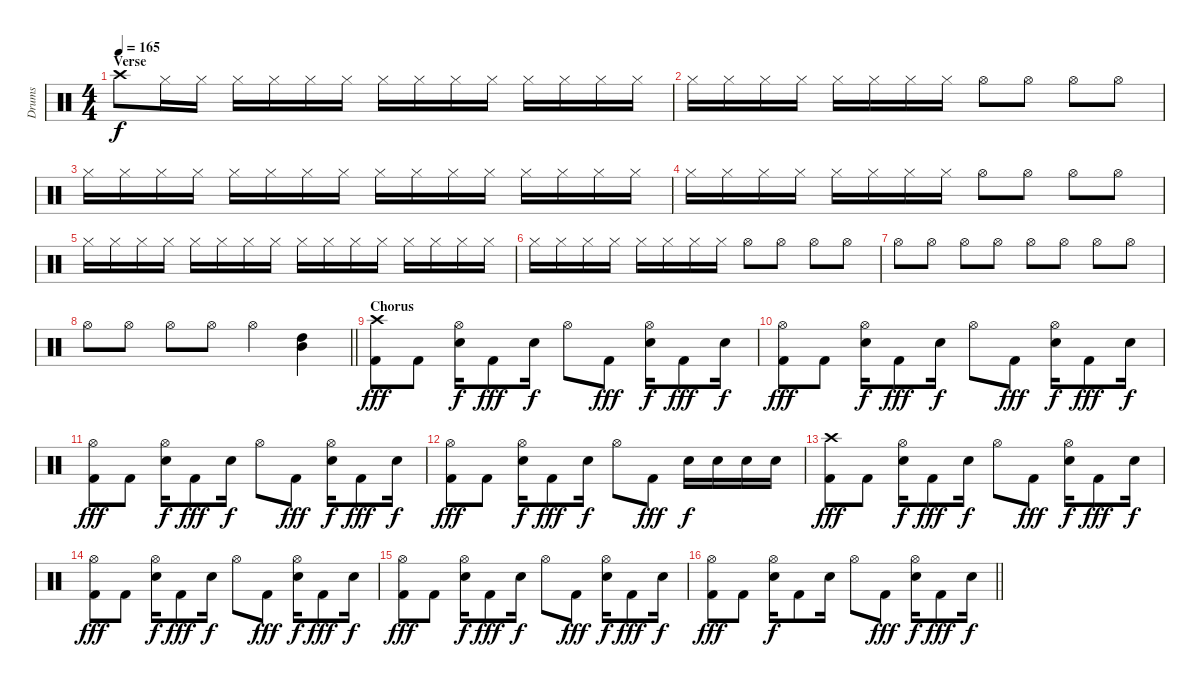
\track ("Drums" "Drums") {instrument percussion}
\staff {score}
\articulation defaults
\ts (4 4)
\section ("" "Verse")
\tempo 165
\clef neutral
\ks c "Crash high (hit)".8{dy f} "Hi-Hat (closed)".16 "Hi-Hat (closed)".16 "Hi-Hat (closed)".16 "Hi-Hat (closed)".16 "Hi-Hat (closed)".16 "Hi-Hat (closed)".16 "Hi-Hat (closed)".16 "Hi-Hat (closed)".16 "Hi-Hat (closed)".16 "Hi-Hat (closed)".16 "Hi-Hat (closed)".16 "Hi-Hat (closed)".16 "Hi-Hat (closed)".16 "Hi-Hat (closed)".16
|
"Hi-Hat (closed)".16 "Hi-Hat (closed)".16 "Hi-Hat (closed)".16 "Hi-Hat (closed)".16 "Hi-Hat (closed)".16 "Hi-Hat (closed)".16 "Hi-Hat (closed)".16 "Hi-Hat (closed)".16 "Hi-Hat (open)".8 "Hi-Hat (open)".8 "Hi-Hat (open)".8 "Hi-Hat (open)".8 |
"Hi-Hat (closed)".16 "Hi-Hat (closed)".16 "Hi-Hat (closed)".16 "Hi-Hat (closed)".16 "Hi-Hat (closed)".16 "Hi-Hat (closed)".16 "Hi-Hat (closed)".16 "Hi-Hat (closed)".16 "Hi-Hat (closed)".16 "Hi-Hat (closed)".16 "Hi-Hat (closed)".16 "Hi-Hat (closed)".16 "Hi-Hat (closed)".16 "Hi-Hat (closed)".16 "Hi-Hat (closed)".16 "Hi-Hat (closed)".16 |
"Hi-Hat (closed)".16 "Hi-Hat (closed)".16 "Hi-Hat (closed)".16 "Hi-Hat (closed)".16 "Hi-Hat (closed)".16 "Hi-Hat (closed)".16 "Hi-Hat (closed)".16 "Hi-Hat (closed)".16 "Hi-Hat (open)".8 "Hi-Hat (open)".8 "Hi-Hat (open)".8 "Hi-Hat (open)".8 |
"Hi-Hat (closed)".16 "Hi-Hat (closed)".16 "Hi-Hat (closed)".16 "Hi-Hat (closed)".16 "Hi-Hat (closed)".16 "Hi-Hat (closed)".16 "Hi-Hat (closed)".16 "Hi-Hat (closed)".16 "Hi-Hat (closed)".16 "Hi-Hat (closed)".16 "Hi-Hat (closed)".16 "Hi-Hat (closed)".16 "Hi-Hat (closed)".16 "Hi-Hat (closed)".16 "Hi-Hat (closed)".16 "Hi-Hat (closed)".16 |
"Hi-Hat (closed)".16 "Hi-Hat (closed)".16 "Hi-Hat (closed)".16 "Hi-Hat (closed)".16 "Hi-Hat (closed)".16 "Hi-Hat (closed)".16 "Hi-Hat (closed)".16 "Hi-Hat (closed)".16 "Hi-Hat (open)".8 "Hi-Hat (open)".8 "Hi-Hat (open)".8 "Hi-Hat (open)".8 |
"Hi-Hat (open)".8 "Hi-Hat (open)".8 "Hi-Hat (open)".8 "Hi-Hat (open)".8 "Hi-Hat (open)".8 "Hi-Hat (open)".8 "Hi-Hat (open)".8 "Hi-Hat (open)".8 |
\barLineRight lightlight "Hi-Hat (open)".8 "Hi-Hat (open)".8 "Hi-Hat (open)".8 "Hi-Hat (open)".8 "Hi-Hat (open)".4
("Mid Tom (hit)" "High Tom (hit)").4 |
\section ("" "Chorus")
("Crash high (hit)" "Kick (hit) 2").8{dy fff} "Kick (hit) 2".8 ("Hi-Hat (open)" "Snare (hit) 2").16{dy f} "Kick (hit) 2".8{dy fff} "Snare (hit) 2".16{dy f} "Hi-Hat (open)".8 "Kick (hit) 2".8{dy fff} ("Hi-Hat (open)" "Snare (hit) 2").16{dy f} "Kick (hit) 2".8{dy fff} "Snare (hit) 2".16{dy f} |
("Hi-Hat (open)" "Kick (hit) 2").8{dy fff} "Kick (hit) 2".8 ("Hi-Hat (open)" "Snare (hit) 2").16{dy f} "Kick (hit) 2".8{dy fff} "Snare (hit) 2".16{dy f} "Hi-Hat (open)".8 "Kick (hit) 2".8{dy fff} ("Hi-Hat (open)" "Snare (hit) 2").16{dy f} "Kick (hit) 2".8{dy fff} "Snare (hit) 2".16{dy f} |
("Hi-Hat (open)" "Kick (hit) 2").8{dy fff} "Kick (hit) 2".8 ("Hi-Hat (open)" "Snare (hit) 2").16{dy f} "Kick (hit) 2".8{dy fff} "Snare (hit) 2".16{dy f} "Hi-Hat (open)".8 "Kick (hit) 2".8{dy fff} ("Hi-Hat (open)" "Snare (hit) 2").16{dy f} "Kick (hit) 2".8{dy fff} "Snare (hit) 2".16{dy f} |
("Hi-Hat (open)" "Kick (hit) 2").8{dy fff} "Kick (hit) 2".8 ("Hi-Hat (open)" "Snare (hit) 2").16{dy f} "Kick (hit) 2".8{dy fff} "Snare (hit) 2".16{dy f} "Hi-Hat (open)".8 "Kick (hit) 2".8{dy fff} "Snare (hit) 2".16{dy f} "Snare (hit) 2".16 "Snare (hit) 2".16 "Snare (hit) 2".16 |
("Crash high (hit)" "Kick (hit) 2").8{dy fff} "Kick (hit) 2".8 ("Hi-Hat (open)" "Snare (hit) 2").16{dy f} "Kick (hit) 2".8{dy fff} "Snare (hit) 2".16{dy f} "Hi-Hat (open)".8 "Kick (hit) 2".8{dy fff} ("Hi-Hat (open)" "Snare (hit) 2").16{dy f} "Kick (hit) 2".8{dy fff} "Snare (hit) 2".16{dy f} |
("Hi-Hat (open)" "Kick (hit) 2").8{dy fff} "Kick (hit) 2".8 ("Hi-Hat (open)" "Snare (hit) 2").16{dy f} "Kick (hit) 2".8{dy fff} "Snare (hit) 2".16{dy f} "Hi-Hat (open)".8 "Kick (hit) 2".8{dy fff} ("Hi-Hat (open)" "Snare (hit) 2").16{dy f} "Kick (hit) 2".8{dy fff} "Snare (hit) 2".16{dy f} |
("Hi-Hat (open)" "Kick (hit) 2").8{dy fff} "Kick (hit) 2".8 ("Hi-Hat (open)" "Snare (hit) 2").16{dy f} "Kick (hit) 2".8{dy fff} "Snare (hit) 2".16{dy f} "Hi-Hat (open)".8 "Kick (hit) 2".8{dy fff} ("Hi-Hat (open)" "Snare (hit) 2").16{dy f} "Kick (hit) 2".8{dy fff} "Snare (hit) 2".16{dy f} |
\barLineRight lightlight
("Hi-Hat (open)" "Kick (hit) 2").8{dy fff} "Kick (hit) 2".8 ("Hi-Hat (open)" "Snare (hit) 2").16{dy f} "Kick (hit) 2".8 "Snare (hit) 2".16 "Hi-Hat (open)".8 "Kick (hit) 2".8{dy fff} ("Hi-Hat (open)" "Snare (hit) 2").16{dy f} "Kick (hit) 2".8{dy fff} "Snare (hit) 2".16{dy f}
